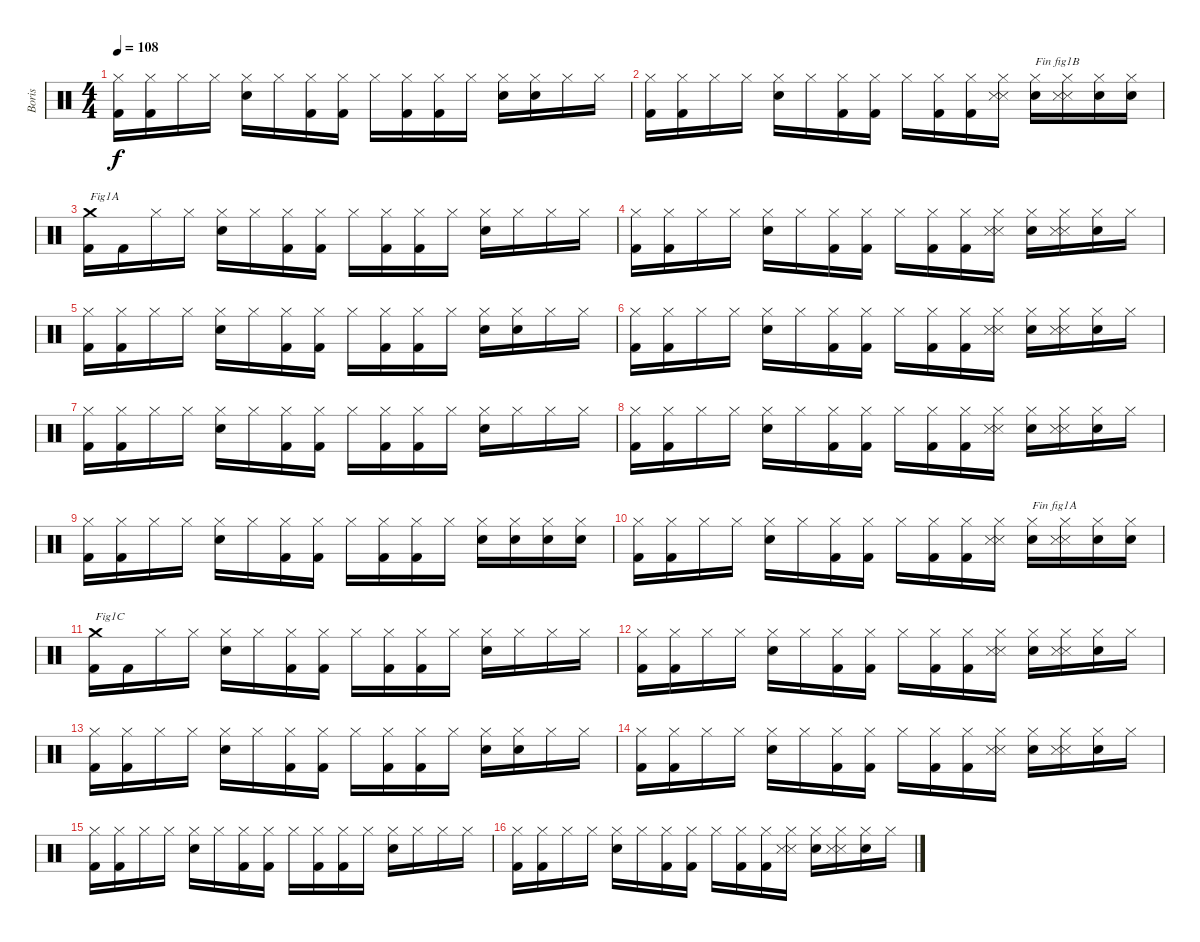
\track ("Boris" "Boris") {instrument percussion}
\staff {score}
\articulation defaults
\ts (4 4)
\tempo 108
\clef neutral
\ks c
("Kick (hit) 2" "Hi-Hat (closed)").16{dy f} ("Kick (hit) 2" "Hi-Hat (closed)").16 "Hi-Hat (closed)".16 "Hi-Hat (closed)".16 ("Electric Snare (hit)" "Hi-Hat (closed)").16 "Hi-Hat (closed)".16 ("Kick (hit) 2" "Hi-Hat (closed)").16 ("Kick (hit) 2" "Hi-Hat (closed)").16 "Hi-Hat (closed)".16 ("Kick (hit) 2" "Hi-Hat (closed)").16 ("Kick (hit) 2" "Hi-Hat (closed)").16 "Hi-Hat (closed)".16 ("Electric Snare (hit)" "Hi-Hat (closed)").16 ("Electric Snare (hit)" "Hi-Hat (closed)").16 "Hi-Hat (closed)".16 "Hi-Hat (closed)".16 |
("Kick (hit) 2" "Hi-Hat (closed)").16 ("Kick (hit) 2" "Hi-Hat (closed)").16 "Hi-Hat (closed)".16 "Hi-Hat (closed)".16 ("Electric Snare (hit)" "Hi-Hat (closed)").16 "Hi-Hat (closed)".16 ("Kick (hit) 2" "Hi-Hat (closed)").16 ("Kick (hit) 2" "Hi-Hat (closed)").16 "Hi-Hat (closed)".16 ("Kick (hit) 2" "Hi-Hat (closed)").16 ("Kick (hit) 2" "Hi-Hat (closed)").16 ("Metronome (hit)" "Snare (side stick) 3" "Hi-Hat (closed)").16 ("Electric Snare (hit)" "Hi-Hat (closed)").16{txt "Fin fig1B"} ("Metronome (hit)" "Snare (side stick) 3" "Hi-Hat (closed)").16 ("Electric Snare (hit)" "Hi-Hat (closed)").16 ("Electric Snare (hit)" "Hi-Hat (closed)").16 |
("Kick (hit) 2" "Crash medium (hit)").16{txt "Fig1A"} "Kick (hit) 2".16 "Hi-Hat (closed)".16 "Hi-Hat (closed)".16 ("Electric Snare (hit)" "Hi-Hat (closed)").16 "Hi-Hat (closed)".16 ("Kick (hit) 2" "Hi-Hat (closed)").16 ("Kick (hit) 2" "Hi-Hat (closed)").16 "Hi-Hat (closed)".16 ("Kick (hit) 2" "Hi-Hat (closed)").16 ("Kick (hit) 2" "Hi-Hat (closed)").16 "Hi-Hat (closed)".16 ("Electric Snare (hit)" "Hi-Hat (closed)").16 "Hi-Hat (closed)".16 "Hi-Hat (closed)".16 "Hi-Hat (closed)".16 |
("Kick (hit) 2" "Hi-Hat (closed)").16 ("Kick (hit) 2" "Hi-Hat (closed)").16 "Hi-Hat (closed)".16 "Hi-Hat (closed)".16 ("Electric Snare (hit)" "Hi-Hat (closed)").16 "Hi-Hat (closed)".16 ("Kick (hit) 2" "Hi-Hat (closed)").16 ("Kick (hit) 2" "Hi-Hat (closed)").16 "Hi-Hat (closed)".16 ("Kick (hit) 2" "Hi-Hat (closed)").16 ("Kick (hit) 2" "Hi-Hat (closed)").16 ("Metronome (hit)" "Snare (side stick) 3" "Hi-Hat (closed)").16 ("Electric Snare (hit)" "Hi-Hat (closed)").16 ("Metronome (hit)" "Snare (side stick) 3" "Hi-Hat (closed)").16 ("Electric Snare (hit)" "Hi-Hat (closed)").16 "Hi-Hat (closed)".16 |
("Kick (hit) 2" "Hi-Hat (closed)").16 ("Kick (hit) 2" "Hi-Hat (closed)").16 "Hi-Hat (closed)".16 "Hi-Hat (closed)".16 ("Electric Snare (hit)" "Hi-Hat (closed)").16 "Hi-Hat (closed)".16 ("Kick (hit) 2" "Hi-Hat (closed)").16 ("Kick (hit) 2" "Hi-Hat (closed)").16 "Hi-Hat (closed)".16 ("Kick (hit) 2" "Hi-Hat (closed)").16 ("Kick (hit) 2" "Hi-Hat (closed)").16 "Hi-Hat (closed)".16 ("Electric Snare (hit)" "Hi-Hat (closed)").16 ("Electric Snare (hit)" "Hi-Hat (closed)").16 "Hi-Hat (closed)".16 "Hi-Hat (closed)".16 |
("Kick (hit) 2" "Hi-Hat (closed)").16 ("Kick (hit) 2" "Hi-Hat (closed)").16 "Hi-Hat (closed)".16 "Hi-Hat (closed)".16 ("Electric Snare (hit)" "Hi-Hat (closed)").16 "Hi-Hat (closed)".16 ("Kick (hit) 2" "Hi-Hat (closed)").16 ("Kick (hit) 2" "Hi-Hat (closed)").16 "Hi-Hat (closed)".16 ("Kick (hit) 2" "Hi-Hat (closed)").16 ("Kick (hit) 2" "Hi-Hat (closed)").16 ("Metronome (hit)" "Snare (side stick) 3" "Hi-Hat (closed)").16 ("Electric Snare (hit)" "Hi-Hat (closed)").16 ("Metronome (hit)" "Snare (side stick) 3" "Hi-Hat (closed)").16 ("Electric Snare (hit)" "Hi-Hat (closed)").16 "Hi-Hat (closed)".16 |
("Kick (hit) 2" "Hi-Hat (closed)").16 ("Kick (hit) 2" "Hi-Hat (closed)").16 "Hi-Hat (closed)".16 "Hi-Hat (closed)".16 ("Electric Snare (hit)" "Hi-Hat (closed)").16 "Hi-Hat (closed)".16 ("Kick (hit) 2" "Hi-Hat (closed)").16 ("Kick (hit) 2" "Hi-Hat (closed)").16 "Hi-Hat (closed)".16 ("Kick (hit) 2" "Hi-Hat (closed)").16 ("Kick (hit) 2" "Hi-Hat (closed)").16 "Hi-Hat (closed)".16 ("Electric Snare (hit)" "Hi-Hat (closed)").16 "Hi-Hat (closed)".16 "Hi-Hat (closed)".16 "Hi-Hat (closed)".16 |
("Kick (hit) 2" "Hi-Hat (closed)").16 ("Kick (hit) 2" "Hi-Hat (closed)").16 "Hi-Hat (closed)".16 "Hi-Hat (closed)".16 ("Electric Snare (hit)" "Hi-Hat (closed)").16 "Hi-Hat (closed)".16 ("Kick (hit) 2" "Hi-Hat (closed)").16 ("Kick (hit) 2" "Hi-Hat (closed)").16 "Hi-Hat (closed)".16 ("Kick (hit) 2" "Hi-Hat (closed)").16 ("Kick (hit) 2" "Hi-Hat (closed)").16 ("Metronome (hit)" "Snare (side stick) 3" "Hi-Hat (closed)").16 ("Electric Snare (hit)" "Hi-Hat (closed)").16 ("Metronome (hit)" "Snare (side stick) 3" "Hi-Hat (closed)").16 ("Electric Snare (hit)" "Hi-Hat (closed)").16 "Hi-Hat (closed)".16 |
("Kick (hit) 2" "Hi-Hat (closed)").16 ("Kick (hit) 2" "Hi-Hat (closed)").16 "Hi-Hat (closed)".16 "Hi-Hat (closed)".16 ("Electric Snare (hit)" "Hi-Hat (closed)").16 "Hi-Hat (closed)".16 ("Kick (hit) 2" "Hi-Hat (closed)").16 ("Kick (hit) 2" "Hi-Hat (closed)").16 "Hi-Hat (closed)".16 ("Kick (hit) 2" "Hi-Hat (closed)").16 ("Kick (hit) 2" "Hi-Hat (closed)").16 "Hi-Hat (closed)".16 ("Electric Snare (hit)" "Hi-Hat (closed)").16 ("Electric Snare (hit)" "Hi-Hat (closed)").16 ("Electric Snare (hit)" "Hi-Hat (closed)").16 ("Electric Snare (hit)" "Hi-Hat (closed)").16 |
("Kick (hit) 2" "Hi-Hat (closed)").16 ("Kick (hit) 2" "Hi-Hat (closed)").16 "Hi-Hat (closed)".16 "Hi-Hat (closed)".16 ("Electric Snare (hit)" "Hi-Hat (closed)").16 "Hi-Hat (closed)".16 ("Kick (hit) 2" "Hi-Hat (closed)").16 ("Kick (hit) 2" "Hi-Hat (closed)").16 "Hi-Hat (closed)".16 ("Kick (hit) 2" "Hi-Hat (closed)").16 ("Kick (hit) 2" "Hi-Hat (closed)").16 ("Metronome (hit)" "Snare (side stick) 3" "Hi-Hat (closed)").16 ("Electric Snare (hit)" "Hi-Hat (closed)").16{txt "Fin fig1A"} ("Metronome (hit)" "Snare (side stick) 3" "Hi-Hat (closed)").16 ("Electric Snare (hit)" "Hi-Hat (closed)").16 ("Electric Snare (hit)" "Hi-Hat (closed)").16 |
("Kick (hit) 2" "Crash medium (hit)").16{txt "Fig1C"} "Kick (hit) 2".16 "Hi-Hat (closed)".16 "Hi-Hat (closed)".16 ("Electric Snare (hit)" "Hi-Hat (closed)").16 "Hi-Hat (closed)".16 ("Kick (hit) 2" "Hi-Hat (closed)").16 ("Kick (hit) 2" "Hi-Hat (closed)").16 "Hi-Hat (closed)".16 ("Kick (hit) 2" "Hi-Hat (closed)").16 ("Kick (hit) 2" "Hi-Hat (closed)").16 "Hi-Hat (closed)".16 ("Electric Snare (hit)" "Hi-Hat (closed)").16 "Hi-Hat (closed)".16 "Hi-Hat (closed)".16 "Hi-Hat (closed)".16 |
("Kick (hit) 2" "Hi-Hat (closed)").16 ("Kick (hit) 2" "Hi-Hat (closed)").16 "Hi-Hat (closed)".16 "Hi-Hat (closed)".16 ("Electric Snare (hit)" "Hi-Hat (closed)").16 "Hi-Hat (closed)".16 ("Kick (hit) 2" "Hi-Hat (closed)").16 ("Kick (hit) 2" "Hi-Hat (closed)").16 "Hi-Hat (closed)".16 ("Kick (hit) 2" "Hi-Hat (closed)").16 ("Kick (hit) 2" "Hi-Hat (closed)").16 ("Metronome (hit)" "Snare (side stick) 3" "Hi-Hat (closed)").16 ("Electric Snare (hit)" "Hi-Hat (closed)").16 ("Metronome (hit)" "Snare (side stick) 3" "Hi-Hat (closed)").16 ("Electric Snare (hit)" "Hi-Hat (closed)").16 "Hi-Hat (closed)".16 |
("Kick (hit) 2" "Hi-Hat (closed)").16 ("Kick (hit) 2" "Hi-Hat (closed)").16 "Hi-Hat (closed)".16 "Hi-Hat (closed)".16 ("Electric Snare (hit)" "Hi-Hat (closed)").16 "Hi-Hat (closed)".16 ("Kick (hit) 2" "Hi-Hat (closed)").16 ("Kick (hit) 2" "Hi-Hat (closed)").16 "Hi-Hat (closed)".16 ("Kick (hit) 2" "Hi-Hat (closed)").16 ("Kick (hit) 2" "Hi-Hat (closed)").16 "Hi-Hat (closed)".16 ("Electric Snare (hit)" "Hi-Hat (closed)").16 ("Electric Snare (hit)" "Hi-Hat (closed)").16 "Hi-Hat (closed)".16 "Hi-Hat (closed)".16 |
("Kick (hit) 2" "Hi-Hat (closed)").16 ("Kick (hit) 2" "Hi-Hat (closed)").16 "Hi-Hat (closed)".16 "Hi-Hat (closed)".16 ("Electric Snare (hit)" "Hi-Hat (closed)").16 "Hi-Hat (closed)".16 ("Kick (hit) 2" "Hi-Hat (closed)").16 ("Kick (hit) 2" "Hi-Hat (closed)").16 "Hi-Hat (closed)".16 ("Kick (hit) 2" "Hi-Hat (closed)").16 ("Kick (hit) 2" "Hi-Hat (closed)").16 ("Metronome (hit)" "Snare (side stick) 3" "Hi-Hat (closed)").16 ("Electric Snare (hit)" "Hi-Hat (closed)").16 ("Metronome (hit)" "Snare (side stick) 3" "Hi-Hat (closed)").16 ("Electric Snare (hit)" "Hi-Hat (closed)").16 "Hi-Hat (closed)".16 |
("Kick (hit) 2" "Hi-Hat (closed)").16 ("Kick (hit) 2" "Hi-Hat (closed)").16 "Hi-Hat (closed)".16 "Hi-Hat (closed)".16 ("Electric Snare (hit)" "Hi-Hat (closed)").16 "Hi-Hat (closed)".16 ("Kick (hit) 2" "Hi-Hat (closed)").16 ("Kick (hit) 2" "Hi-Hat (closed)").16 "Hi-Hat (closed)".16 ("Kick (hit) 2" "Hi-Hat (closed)").16 ("Kick (hit) 2" "Hi-Hat (closed)").16 "Hi-Hat (closed)".16 ("Electric Snare (hit)" "Hi-Hat (closed)").16 "Hi-Hat (closed)".16 "Hi-Hat (closed)".16 "Hi-Hat (closed)".16 |
("Kick (hit) 2" "Hi-Hat (closed)").16 ("Kick (hit) 2" "Hi-Hat (closed)").16 "Hi-Hat (closed)".16 "Hi-Hat (closed)".16 ("Electric Snare (hit)" "Hi-Hat (closed)").16 "Hi-Hat (closed)".16 ("Kick (hit) 2" "Hi-Hat (closed)").16 ("Kick (hit) 2" "Hi-Hat (closed)").16 "Hi-Hat (closed)".16 ("Kick (hit) 2" "Hi-Hat (closed)").16 ("Kick (hit) 2" "Hi-Hat (closed)").16 ("Metronome (hit)" "Snare (side stick) 3" "Hi-Hat (closed)").16 ("Electric Snare (hit)" "Hi-Hat (closed)").16 ("Metronome (hit)" "Snare (side stick) 3" "Hi-Hat (closed)").16 ("Electric Snare (hit)" "Hi-Hat (closed)").16 "Hi-Hat (closed)".16
